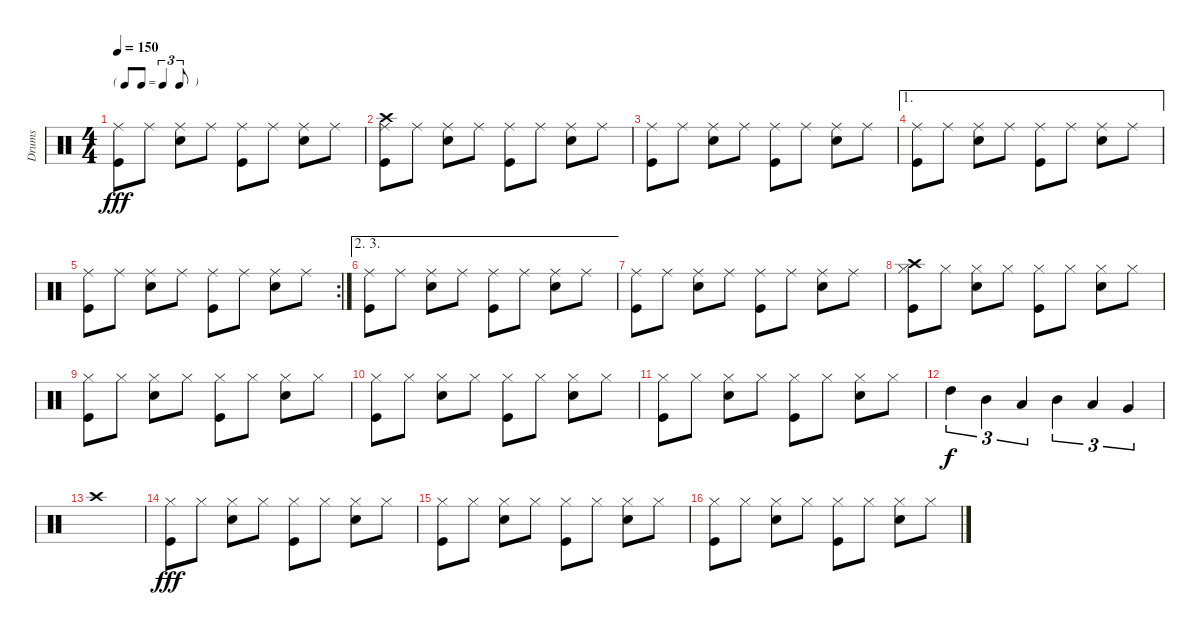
\track ("Drums" "Drums") {instrument percussion}
\staff {score}
\articulation defaults
\ts (4 4)
\tf triplet8th
\tempo 150
\clef neutral
\ks c
("Kick (hit)" "Ride (middle)").8{dy fff} "Ride (middle)".8 ("Snare (hit) 2" "Ride (middle)").8 "Ride (middle)".8 ("Kick (hit)" "Ride (middle)").8 "Ride (middle)".8 ("Snare (hit) 2" "Ride (middle)").8 "Ride (middle)".8 |
("Kick (hit)" "Ride (middle)" "Crash high (hit)").8 "Ride (middle)".8 ("Snare (hit) 2" "Ride (middle)").8 "Ride (middle)".8 ("Kick (hit)" "Ride (middle)").8 "Ride (middle)".8 ("Snare (hit) 2" "Ride (middle)").8 "Ride (middle)".8 |
("Kick (hit)" "Ride (middle)").8 "Ride (middle)".8 ("Snare (hit) 2" "Ride (middle)").8 "Ride (middle)".8 ("Kick (hit)" "Ride (middle)").8 "Ride (middle)".8 ("Snare (hit) 2" "Ride (middle)").8 "Ride (middle)".8 |
\ae 1
("Kick (hit)" "Ride (middle)").8 "Ride (middle)".8 ("Snare (hit) 2" "Ride (middle)").8 "Ride (middle)".8 ("Kick (hit)" "Ride (middle)").8 "Ride (middle)".8 ("Snare (hit) 2" "Ride (middle)").8 "Ride (middle)".8 |
\rc 2
("Kick (hit)" "Ride (middle)").8 "Ride (middle)".8 ("Snare (hit) 2" "Ride (middle)").8 "Ride (middle)".8 ("Kick (hit)" "Ride (middle)").8 "Ride (middle)".8 ("Snare (hit) 2" "Ride (middle)").8 "Ride (middle)".8 |
\ae (2 3)
("Kick (hit)" "Ride (middle)").8 "Ride (middle)".8 ("Snare (hit) 2" "Ride (middle)").8 "Ride (middle)".8 ("Kick (hit)" "Ride (middle)").8 "Ride (middle)".8 ("Snare (hit) 2" "Ride (middle)").8 "Ride (middle)".8 |
("Kick (hit)" "Ride (middle)").8 "Ride (middle)".8 ("Snare (hit) 2" "Ride (middle)").8 "Ride (middle)".8 ("Kick (hit)" "Ride (middle)").8 "Ride (middle)".8 ("Snare (hit) 2" "Ride (middle)").8 "Ride (middle)".8 |
("Kick (hit)" "Hi-Hat (closed)" "Crash high (hit)").8 "Hi-Hat (closed)".8 ("Snare (hit) 2" "Hi-Hat (closed)").8 "Hi-Hat (closed)".8 ("Kick (hit)" "Hi-Hat (closed)").8 "Hi-Hat (closed)".8 ("Snare (hit) 2" "Hi-Hat (closed)").8 "Hi-Hat (closed)".8 |
("Kick (hit)" "Hi-Hat (closed)").8 "Hi-Hat (closed)".8 ("Snare (hit) 2" "Hi-Hat (closed)").8 "Hi-Hat (closed)".8 ("Kick (hit)" "Hi-Hat (closed)").8 "Hi-Hat (closed)".8 ("Snare (hit) 2" "Hi-Hat (closed)").8 "Hi-Hat (closed)".8 |
("Kick (hit)" "Hi-Hat (closed)").8 "Hi-Hat (closed)".8 ("Snare (hit) 2" "Hi-Hat (closed)").8 "Hi-Hat (closed)".8 ("Kick (hit)" "Hi-Hat (closed)").8 "Hi-Hat (closed)".8 ("Snare (hit) 2" "Hi-Hat (closed)").8 "Hi-Hat (closed)".8 |
("Kick (hit)" "Hi-Hat (closed)").8 "Hi-Hat (closed)".8 ("Snare (hit) 2" "Hi-Hat (closed)").8 "Hi-Hat (closed)".8 ("Kick (hit)" "Hi-Hat (closed)").8 "Hi-Hat (closed)".8 ("Snare (hit) 2" "Hi-Hat (closed)").8 "Hi-Hat (closed)".8 |
"High Tom (hit)".4{tu (3 2) dy f} "Mid Tom (hit)".4{tu (3 2)} "Low Tom (hit)".4{tu (3 2)} "Mid Tom (hit)".4{tu (3 2)} "Low Tom (hit)".4{tu (3 2)} "Very Low Tom (hit)".4{tu (3 2)} |
"Crash high (hit)".1 |
("Kick (hit)" "Hi-Hat (closed)").8{dy fff} "Hi-Hat (closed)".8 ("Snare (hit) 2" "Hi-Hat (closed)").8 "Hi-Hat (closed)".8 ("Kick (hit)" "Hi-Hat (closed)").8 "Hi-Hat (closed)".8 ("Snare (hit) 2" "Hi-Hat (closed)").8 "Hi-Hat (closed)".8 |
("Kick (hit)" "Hi-Hat (closed)").8 "Hi-Hat (closed)".8 ("Snare (hit) 2" "Hi-Hat (closed)").8 "Hi-Hat (closed)".8 ("Kick (hit)" "Hi-Hat (closed)").8 "Hi-Hat (closed)".8 ("Snare (hit) 2" "Hi-Hat (closed)").8 "Hi-Hat (closed)".8 |
("Kick (hit)" "Hi-Hat (closed)").8 "Hi-Hat (closed)".8 ("Snare (hit) 2" "Hi-Hat (closed)").8 "Hi-Hat (closed)".8 ("Kick (hit)" "Hi-Hat (closed)").8 "Hi-Hat (closed)".8 ("Snare (hit) 2" "Hi-Hat (closed)").8 "Hi-Hat (closed)".8
